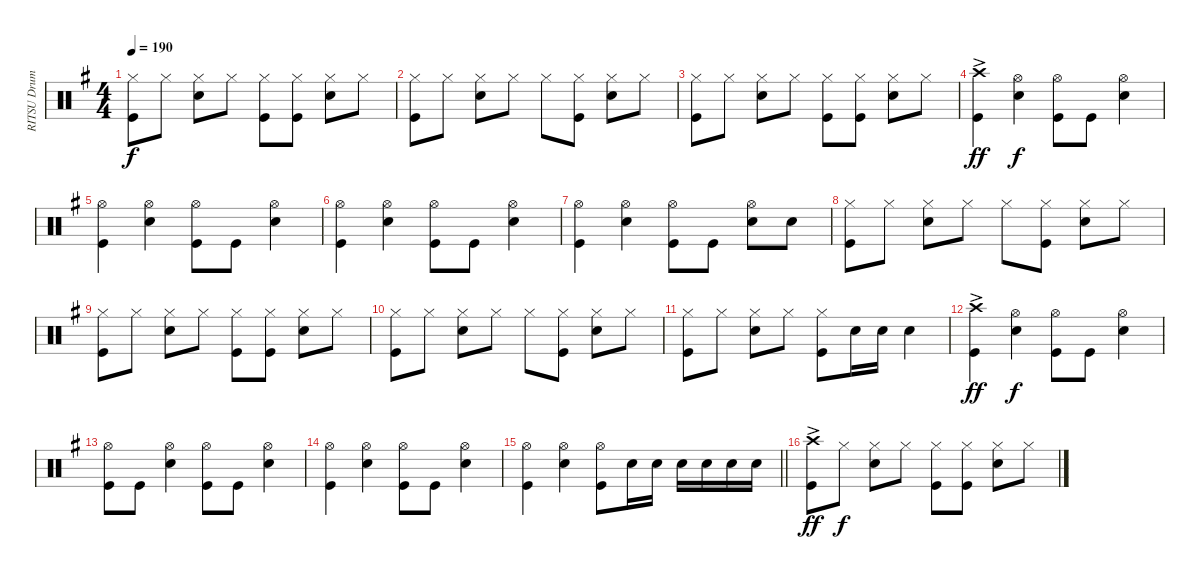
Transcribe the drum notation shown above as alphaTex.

\track ("RITSU Drums" "RITSU Drum") {instrument percussion}
\staff {score}
\articulation defaults
\ts (4 4)
\tempo 190
\clef neutral
\ks g
("Hi-Hat (closed)" "Kick (hit)").8{dy f} "Hi-Hat (closed)".8 ("Snare (hit) 2" "Hi-Hat (closed)").8 "Hi-Hat (closed)".8 ("Hi-Hat (closed)" "Kick (hit)").8 ("Kick (hit)" "Hi-Hat (closed)").8 ("Hi-Hat (closed)" "Snare (hit) 2").8 "Hi-Hat (closed)".8 |
("Hi-Hat (closed)" "Kick (hit)").8 "Hi-Hat (closed)".8 ("Snare (hit) 2" "Hi-Hat (closed)").8 "Hi-Hat (closed)".8 "Hi-Hat (closed)".8 ("Kick (hit)" "Hi-Hat (closed)").8 ("Snare (hit) 2" "Hi-Hat (closed)").8 "Hi-Hat (closed)".8 |
("Hi-Hat (closed)" "Kick (hit)").8 "Hi-Hat (closed)".8 ("Snare (hit) 2" "Hi-Hat (closed)").8 "Hi-Hat (closed)".8 ("Hi-Hat (closed)" "Kick (hit)").8 ("Kick (hit)" "Hi-Hat (closed)").8 ("Hi-Hat (closed)" "Snare (hit) 2").8 "Hi-Hat (closed)".8 |
("Kick (hit)" "Crash high (hit)"{ac}).4{dy ff} ("Hi-Hat (open)" "Snare (hit) 2").4{dy f} ("Kick (hit)" "Hi-Hat (open)").8 "Kick (hit)".8 ("Snare (hit) 2" "Hi-Hat (open)").4 |
("Kick (hit)" "Hi-Hat (open)").4 ("Hi-Hat (open)" "Snare (hit) 2").4 ("Kick (hit)" "Hi-Hat (open)").8 "Kick (hit)".8 ("Snare (hit) 2" "Hi-Hat (open)").4 |
("Kick (hit)" "Hi-Hat (open)").4 ("Hi-Hat (open)" "Snare (hit) 2").4 ("Kick (hit)" "Hi-Hat (open)").8 "Kick (hit)".8 ("Snare (hit) 2" "Hi-Hat (open)").4 |
("Hi-Hat (open)" "Kick (hit)").4 ("Hi-Hat (open)" "Snare (hit) 2").4 ("Hi-Hat (open)" "Kick (hit)").8 "Kick (hit)".8 ("Hi-Hat (open)" "Snare (hit) 2").8 "Snare (hit) 2".8 |
("Hi-Hat (closed)" "Kick (hit)").8 "Hi-Hat (closed)".8 ("Snare (hit) 2" "Hi-Hat (closed)").8 "Hi-Hat (closed)".8 "Hi-Hat (closed)".8 ("Kick (hit)" "Hi-Hat (closed)").8 ("Snare (hit) 2" "Hi-Hat (closed)").8 "Hi-Hat (closed)".8 |
("Hi-Hat (closed)" "Kick (hit)").8 "Hi-Hat (closed)".8 ("Snare (hit) 2" "Hi-Hat (closed)").8 "Hi-Hat (closed)".8 ("Hi-Hat (closed)" "Kick (hit)").8 ("Kick (hit)" "Hi-Hat (closed)").8 ("Hi-Hat (closed)" "Snare (hit) 2").8 "Hi-Hat (closed)".8 |
("Hi-Hat (closed)" "Kick (hit)").8 "Hi-Hat (closed)".8 ("Snare (hit) 2" "Hi-Hat (closed)").8 "Hi-Hat (closed)".8 "Hi-Hat (closed)".8 ("Kick (hit)" "Hi-Hat (closed)").8 ("Snare (hit) 2" "Hi-Hat (closed)").8 "Hi-Hat (closed)".8 |
("Hi-Hat (closed)" "Kick (hit)").8 "Hi-Hat (closed)".8 ("Snare (hit) 2" "Hi-Hat (closed)").8 "Hi-Hat (closed)".8 ("Hi-Hat (closed)" "Kick (hit)").8 "Snare (hit) 2".16 "Snare (hit) 2".16 "Snare (hit) 2".4 |
("Kick (hit)" "Crash high (hit)"{ac}).4{dy ff} ("Hi-Hat (open)" "Snare (hit) 2").4{dy f} ("Kick (hit)" "Hi-Hat (open)").8 "Kick (hit)".8 ("Snare (hit) 2" "Hi-Hat (open)").4 |
("Kick (hit)" "Hi-Hat (open)").8 "Kick (hit)".8 ("Hi-Hat (open)" "Snare (hit) 2").4 ("Kick (hit)" "Hi-Hat (open)").8 "Kick (hit)".8 ("Snare (hit) 2" "Hi-Hat (open)").4 |
("Kick (hit)" "Hi-Hat (open)").4 ("Hi-Hat (open)" "Snare (hit) 2").4 ("Kick (hit)" "Hi-Hat (open)").8 "Kick (hit)".8 ("Snare (hit) 2" "Hi-Hat (open)").4 |
\barLineRight lightlight
("Kick (hit)" "Hi-Hat (open)").4 ("Hi-Hat (open)" "Snare (hit) 2").4 ("Hi-Hat (open)" "Kick (hit)").8 "Snare (hit) 2".16 "Snare (hit) 2".16 "Snare (hit) 2".16 "Snare (hit) 2".16 "Snare (hit) 2".16 "Snare (hit) 2".16 |
("Crash high (hit)"{ac} "Kick (hit)").8{dy ff} "Hi-Hat (closed)".8{dy f} ("Hi-Hat (closed)" "Snare (hit) 2").8 "Hi-Hat (closed)".8 ("Hi-Hat (closed)" "Kick (hit)").8 ("Hi-Hat (closed)" "Kick (hit)").8 ("Hi-Hat (closed)" "Snare (hit) 2").8 "Hi-Hat (closed)".8
